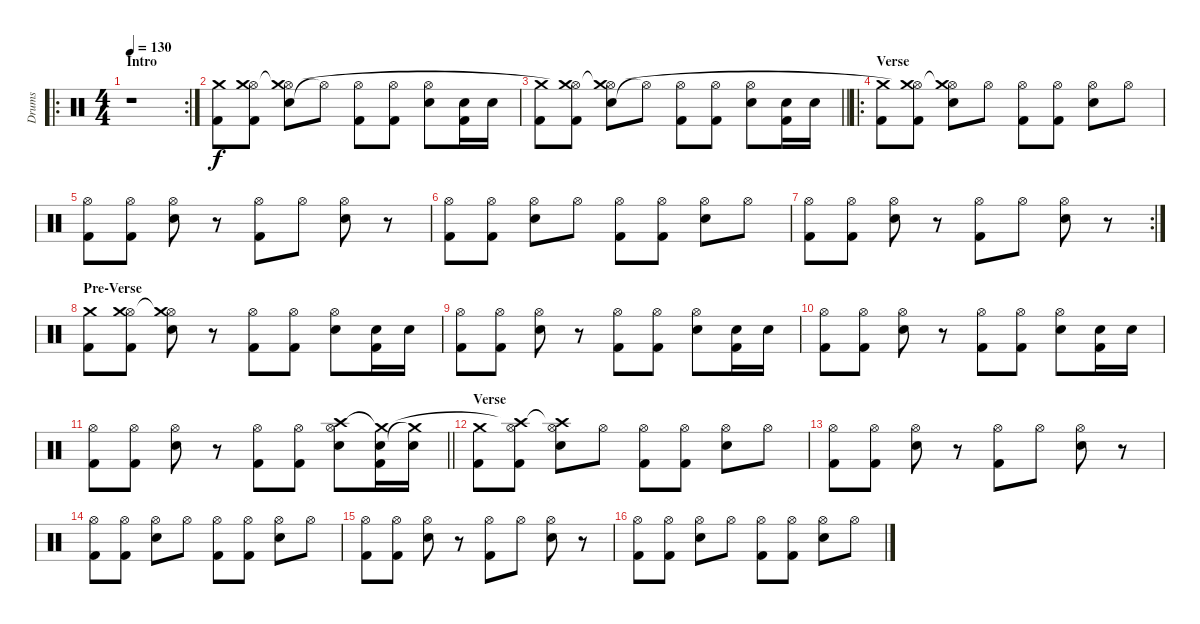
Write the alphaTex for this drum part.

\track ("Drums" "Drums") {instrument percussion}
\staff {score}
\articulation defaults
\ro
\rc 2
\ts (4 4)
\section ("" "Intro")
\tempo 130
\clef neutral
\ks c
r.1{dy f} |
("Kick (hit) 2" "Crash medium (hit)").8 ("Kick (hit) 2" "Hi-Hat (open)" "Crash medium (hit)").8 ("Snare (hit) 2" "Hi-Hat (open)" "Crash medium (hit)"{t}).8 "Hi-Hat (open)"{t}.8 ("Kick (hit) 2" "Hi-Hat (open)").8 ("Kick (hit) 2" "Hi-Hat (open)").8 ("Snare (hit) 2" "Hi-Hat (open)").8 ("Kick (hit) 2" "Snare (hit) 2").16 "Snare (hit) 2".16 |
\barLineRight lightlight
("Kick (hit) 2" "Crash medium (hit)").8 ("Kick (hit) 2" "Hi-Hat (open)" "Crash medium (hit)"{t}).8 ("Snare (hit) 2" "Hi-Hat (open)" "Crash medium (hit)"{t}).8 "Hi-Hat (open)"{t}.8 ("Kick (hit) 2" "Hi-Hat (open)").8 ("Kick (hit) 2" "Hi-Hat (open)").8 ("Snare (hit) 2" "Hi-Hat (open)").8 ("Kick (hit) 2" "Snare (hit) 2").16 "Snare (hit) 2".16 |
\ro
\section ("" "Verse")
("Kick (hit) 2" "Crash medium (hit)").8 ("Kick (hit) 2" "Hi-Hat (open)" "Crash medium (hit)"{t}).8 ("Snare (hit) 2" "Hi-Hat (open)" "Crash medium (hit)"{t}).8 "Hi-Hat (open)".8 ("Kick (hit) 2" "Hi-Hat (open)").8 ("Kick (hit) 2" "Hi-Hat (open)").8 ("Snare (hit) 2" "Hi-Hat (open)").8 "Hi-Hat (open)".8 |
("Kick (hit) 2" "Hi-Hat (open)").8 ("Kick (hit) 2" "Hi-Hat (open)").8 ("Snare (hit) 2" "Hi-Hat (open)").8 r.8 ("Kick (hit) 2" "Hi-Hat (open)").8 "Hi-Hat (open)".8 ("Snare (hit) 2" "Hi-Hat (open)").8 r.8 |
("Kick (hit) 2" "Hi-Hat (open)").8 ("Kick (hit) 2" "Hi-Hat (open)").8 ("Snare (hit) 2" "Hi-Hat (open)").8 "Hi-Hat (open)".8 ("Kick (hit) 2" "Hi-Hat (open)").8 ("Kick (hit) 2" "Hi-Hat (open)").8 ("Snare (hit) 2" "Hi-Hat (open)").8 "Hi-Hat (open)".8 |
\rc 2
("Kick (hit) 2" "Hi-Hat (open)").8 ("Kick (hit) 2" "Hi-Hat (open)").8 ("Snare (hit) 2" "Hi-Hat (open)").8 r.8 ("Kick (hit) 2" "Hi-Hat (open)").8 "Hi-Hat (open)".8 ("Snare (hit) 2" "Hi-Hat (open)").8 r.8 |
\section ("" "Pre-Verse")
("Kick (hit) 2" "Crash medium (hit)").8 ("Kick (hit) 2" "Hi-Hat (open)" "Crash medium (hit)").8 ("Snare (hit) 2" "Hi-Hat (open)" "Crash medium (hit)"{t}).8 r.8 ("Kick (hit) 2" "Hi-Hat (open)").8 ("Kick (hit) 2" "Hi-Hat (open)").8 ("Snare (hit) 2" "Hi-Hat (open)").8 ("Kick (hit) 2" "Snare (hit) 2").16 "Snare (hit) 2".16 |
("Kick (hit) 2" "Hi-Hat (open)").8 ("Kick (hit) 2" "Hi-Hat (open)").8 ("Snare (hit) 2" "Hi-Hat (open)").8 r.8 ("Kick (hit) 2" "Hi-Hat (open)").8 ("Kick (hit) 2" "Hi-Hat (open)").8 ("Snare (hit) 2" "Hi-Hat (open)").8 ("Kick (hit) 2" "Snare (hit) 2").16 "Snare (hit) 2".16 |
("Kick (hit) 2" "Hi-Hat (open)").8 ("Kick (hit) 2" "Hi-Hat (open)").8 ("Snare (hit) 2" "Hi-Hat (open)").8 r.8 ("Kick (hit) 2" "Hi-Hat (open)").8 ("Kick (hit) 2" "Hi-Hat (open)").8 ("Snare (hit) 2" "Hi-Hat (open)").8 ("Kick (hit) 2" "Snare (hit) 2").16 "Snare (hit) 2".16 |
\barLineRight lightlight
("Kick (hit) 2" "Hi-Hat (open)").8 ("Kick (hit) 2" "Hi-Hat (open)").8 ("Snare (hit) 2" "Hi-Hat (open)").8 r.8 ("Kick (hit) 2" "Hi-Hat (open)").8 ("Kick (hit) 2" "Hi-Hat (open)").8 ("Snare (hit) 2" "Hi-Hat (open)" "Crash high (hit)").8 ("Kick (hit) 2" "Snare (hit) 2" "Crash medium (hit)"{t}).16 ("Snare (hit) 2" "Crash medium (hit)"{t}).16 |
\section ("" "Verse")
("Kick (hit) 2" "Crash medium (hit)").8 ("Kick (hit) 2" "Hi-Hat (open)" "Crash high (hit)"{t}).8 ("Snare (hit) 2" "Hi-Hat (open)" "Crash high (hit)"{t}).8 "Hi-Hat (open)".8 ("Kick (hit) 2" "Hi-Hat (open)").8 ("Kick (hit) 2" "Hi-Hat (open)").8 ("Snare (hit) 2" "Hi-Hat (open)").8 "Hi-Hat (open)".8 |
("Kick (hit) 2" "Hi-Hat (open)").8 ("Kick (hit) 2" "Hi-Hat (open)").8 ("Snare (hit) 2" "Hi-Hat (open)").8 r.8 ("Kick (hit) 2" "Hi-Hat (open)").8 "Hi-Hat (open)".8 ("Snare (hit) 2" "Hi-Hat (open)").8 r.8 |
("Kick (hit) 2" "Hi-Hat (open)").8 ("Kick (hit) 2" "Hi-Hat (open)").8 ("Snare (hit) 2" "Hi-Hat (open)").8 "Hi-Hat (open)".8 ("Kick (hit) 2" "Hi-Hat (open)").8 ("Kick (hit) 2" "Hi-Hat (open)").8 ("Snare (hit) 2" "Hi-Hat (open)").8 "Hi-Hat (open)".8 |
("Kick (hit) 2" "Hi-Hat (open)").8 ("Kick (hit) 2" "Hi-Hat (open)").8 ("Snare (hit) 2" "Hi-Hat (open)").8 r.8 ("Kick (hit) 2" "Hi-Hat (open)").8 "Hi-Hat (open)".8 ("Snare (hit) 2" "Hi-Hat (open)").8 r.8 |
("Kick (hit) 2" "Hi-Hat (open)").8 ("Kick (hit) 2" "Hi-Hat (open)").8 ("Snare (hit) 2" "Hi-Hat (open)").8 "Hi-Hat (open)".8 ("Kick (hit) 2" "Hi-Hat (open)").8 ("Kick (hit) 2" "Hi-Hat (open)").8 ("Snare (hit) 2" "Hi-Hat (open)").8 "Hi-Hat (open)".8
